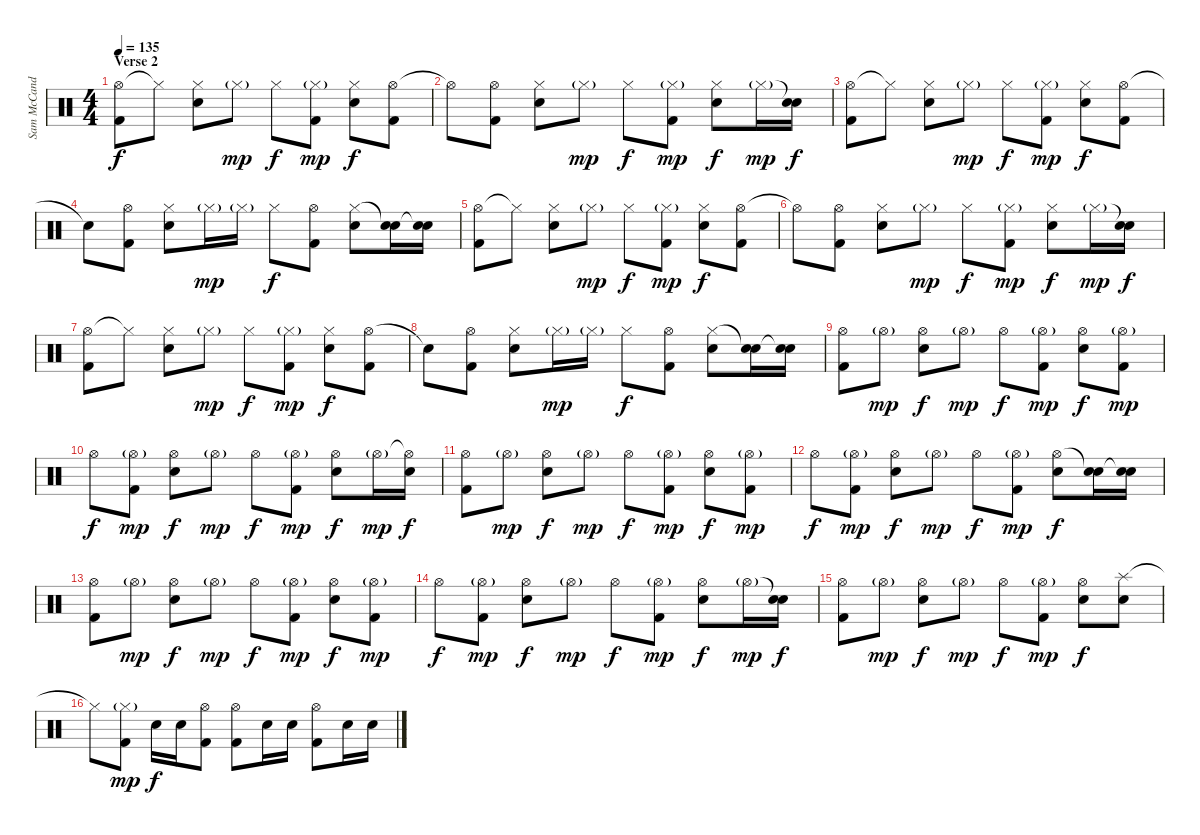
\track ("Sam McCandless (Drums)" "Sam McCand") {instrument percussion}
\staff {score}
\articulation defaults
\ts (4 4)
\section ("" "Verse 2")
\tempo 135
\clef neutral
\ks c
("Hi-Hat (open)" "Kick (hit) 2").8{dy f} "Hi-Hat (closed)"{t}.8 ("Hi-Hat (closed)" "Electric Snare (hit)").8 "Hi-Hat (closed)"{g}.8{dy mp} "Hi-Hat (closed)".8{dy f} ("Hi-Hat (closed)"{g} "Kick (hit) 2").8{dy mp} ("Hi-Hat (closed)" "Electric Snare (hit)").8{dy f} ("Hi-Hat (open)" "Kick (hit) 2").8 |
"Hi-Hat (open)"{t}.8 ("Hi-Hat (open)" "Kick (hit) 2").8 ("Hi-Hat (closed)" "Electric Snare (hit)").8 "Hi-Hat (closed)"{g}.8{dy mp} "Hi-Hat (closed)".8{dy f} ("Hi-Hat (closed)"{g} "Kick (hit) 2").8{dy mp} ("Hi-Hat (closed)" "Electric Snare (hit)").8{dy f} "Hi-Hat (closed)"{g}.16{dy mp} ("Snare (hit)"{t} "Electric Snare (hit)").16{dy f} |
("Hi-Hat (open)" "Kick (hit) 2").8 "Hi-Hat (closed)"{t}.8 ("Hi-Hat (closed)" "Electric Snare (hit)").8 "Hi-Hat (closed)"{g}.8{dy mp} "Hi-Hat (closed)".8{dy f} ("Hi-Hat (closed)"{g} "Kick (hit) 2").8{dy mp} ("Hi-Hat (closed)" "Electric Snare (hit)").8{dy f} ("Hi-Hat (open)" "Kick (hit) 2").8 |
"Snare (hit)"{t}.8 ("Hi-Hat (open)" "Kick (hit) 2").8 ("Hi-Hat (closed)" "Electric Snare (hit)").8 "Hi-Hat (closed)"{g}.16{dy mp} "Hi-Hat (closed)"{g}.16 "Hi-Hat (closed)".8{dy f} ("Hi-Hat (open)" "Kick (hit) 2").8 ("Hi-Hat (closed)" "Electric Snare (hit)").8 ("Snare (hit)"{t} "Electric Snare (hit)").16 ("Snare (hit)"{t} "Electric Snare (hit)").16 |
("Hi-Hat (open)" "Kick (hit) 2").8 "Hi-Hat (closed)"{t}.8 ("Hi-Hat (closed)" "Electric Snare (hit)").8 "Hi-Hat (closed)"{g}.8{dy mp} "Hi-Hat (closed)".8{dy f} ("Hi-Hat (closed)"{g} "Kick (hit) 2").8{dy mp} ("Hi-Hat (closed)" "Electric Snare (hit)").8{dy f} ("Hi-Hat (open)" "Kick (hit) 2").8 |
"Hi-Hat (open)"{t}.8 ("Hi-Hat (open)" "Kick (hit) 2").8 ("Hi-Hat (closed)" "Electric Snare (hit)").8 "Hi-Hat (closed)"{g}.8{dy mp} "Hi-Hat (closed)".8{dy f} ("Hi-Hat (closed)"{g} "Kick (hit) 2").8{dy mp} ("Hi-Hat (closed)" "Electric Snare (hit)").8{dy f} "Hi-Hat (closed)"{g}.16{dy mp} ("Snare (hit)"{t} "Electric Snare (hit)").16{dy f} |
("Hi-Hat (open)" "Kick (hit) 2").8 "Hi-Hat (closed)"{t}.8 ("Hi-Hat (closed)" "Electric Snare (hit)").8 "Hi-Hat (closed)"{g}.8{dy mp} "Hi-Hat (closed)".8{dy f} ("Hi-Hat (closed)"{g} "Kick (hit) 2").8{dy mp} ("Hi-Hat (closed)" "Electric Snare (hit)").8{dy f} ("Hi-Hat (open)" "Kick (hit) 2").8 |
"Snare (hit)"{t}.8 ("Hi-Hat (open)" "Kick (hit) 2").8 ("Hi-Hat (closed)" "Electric Snare (hit)").8 "Hi-Hat (closed)"{g}.16{dy mp} "Hi-Hat (closed)"{g}.16 "Hi-Hat (closed)".8{dy f} ("Hi-Hat (open)" "Kick (hit) 2").8 ("Hi-Hat (closed)" "Electric Snare (hit)").8 ("Snare (hit)"{t} "Electric Snare (hit)").16 ("Snare (hit)"{t} "Electric Snare (hit)").16 |
("Hi-Hat (open)" "Kick (hit) 2").8 "Hi-Hat (open)"{g}.8{dy mp} ("Hi-Hat (open)" "Electric Snare (hit)").8{dy f} "Hi-Hat (open)"{g}.8{dy mp} "Hi-Hat (open)".8{dy f} ("Hi-Hat (open)"{g} "Kick (hit) 2").8{dy mp} ("Hi-Hat (open)" "Electric Snare (hit)").8{dy f} ("Hi-Hat (open)"{g} "Kick (hit) 2").8{dy mp} |
"Hi-Hat (open)".8{dy f} ("Hi-Hat (open)"{g} "Kick (hit) 2").8{dy mp} ("Hi-Hat (open)" "Electric Snare (hit)").8{dy f} "Hi-Hat (open)"{g}.8{dy mp} "Hi-Hat (open)".8{dy f} ("Hi-Hat (open)"{g} "Kick (hit) 2").8{dy mp} ("Hi-Hat (open)" "Electric Snare (hit)").8{dy f} "Hi-Hat (open)"{g}.16{dy mp} ("Hi-Hat (open)"{t} "Electric Snare (hit)").16{dy f} |
("Hi-Hat (open)" "Kick (hit) 2").8 "Hi-Hat (open)"{g}.8{dy mp} ("Hi-Hat (open)" "Electric Snare (hit)").8{dy f} "Hi-Hat (open)"{g}.8{dy mp} "Hi-Hat (open)".8{dy f} ("Hi-Hat (open)"{g} "Kick (hit) 2").8{dy mp} ("Hi-Hat (open)" "Electric Snare (hit)").8{dy f} ("Hi-Hat (open)"{g} "Kick (hit) 2").8{dy mp} |
"Hi-Hat (open)".8{dy f} ("Hi-Hat (open)"{g} "Kick (hit) 2").8{dy mp} ("Hi-Hat (open)" "Electric Snare (hit)").8{dy f} "Hi-Hat (open)"{g}.8{dy mp} "Hi-Hat (open)".8{dy f} ("Hi-Hat (open)"{g} "Kick (hit) 2").8{dy mp} ("Hi-Hat (open)" "Electric Snare (hit)").8{dy f} ("Snare (hit)"{t} "Electric Snare (hit)").16 ("Snare (hit)"{t} "Electric Snare (hit)").16 |
("Hi-Hat (open)" "Kick (hit) 2").8 "Hi-Hat (open)"{g}.8{dy mp} ("Hi-Hat (open)" "Electric Snare (hit)").8{dy f} "Hi-Hat (open)"{g}.8{dy mp} "Hi-Hat (open)".8{dy f} ("Hi-Hat (open)"{g} "Kick (hit) 2").8{dy mp} ("Hi-Hat (open)" "Electric Snare (hit)").8{dy f} ("Hi-Hat (open)"{g} "Kick (hit) 2").8{dy mp} |
"Hi-Hat (open)".8{dy f} ("Hi-Hat (open)"{g} "Kick (hit) 2").8{dy mp} ("Hi-Hat (open)" "Electric Snare (hit)").8{dy f} "Hi-Hat (open)"{g}.8{dy mp} "Hi-Hat (open)".8{dy f} ("Hi-Hat (open)"{g} "Kick (hit) 2").8{dy mp} ("Hi-Hat (open)" "Electric Snare (hit)").8{dy f} "Hi-Hat (open)"{g}.16{dy mp} ("Snare (hit)"{t} "Electric Snare (hit)").16{dy f} |
("Hi-Hat (open)" "Kick (hit) 2").8 "Hi-Hat (open)"{g}.8{dy mp} ("Hi-Hat (open)" "Electric Snare (hit)").8{dy f} "Hi-Hat (open)"{g}.8{dy mp} "Hi-Hat (open)".8{dy f} ("Hi-Hat (open)"{g} "Kick (hit) 2").8{dy mp} ("Hi-Hat (open)" "Electric Snare (hit)").8{dy f} ("Splash (hit)" "Electric Snare (hit)").8 |
"Hi-Hat (closed)"{t}.8 ("Hi-Hat (closed)"{g} "Kick (hit) 2").8{dy mp} "Electric Snare (hit)".16{dy f} "Electric Snare (hit)".16 ("Hi-Hat (open)" "Kick (hit) 2").8 ("Hi-Hat (open)" "Kick (hit) 2").8 "Electric Snare (hit)".16 "Electric Snare (hit)".16 ("Hi-Hat (open)" "Kick (hit) 2").8 "Electric Snare (hit)".16 "Electric Snare (hit)".16
